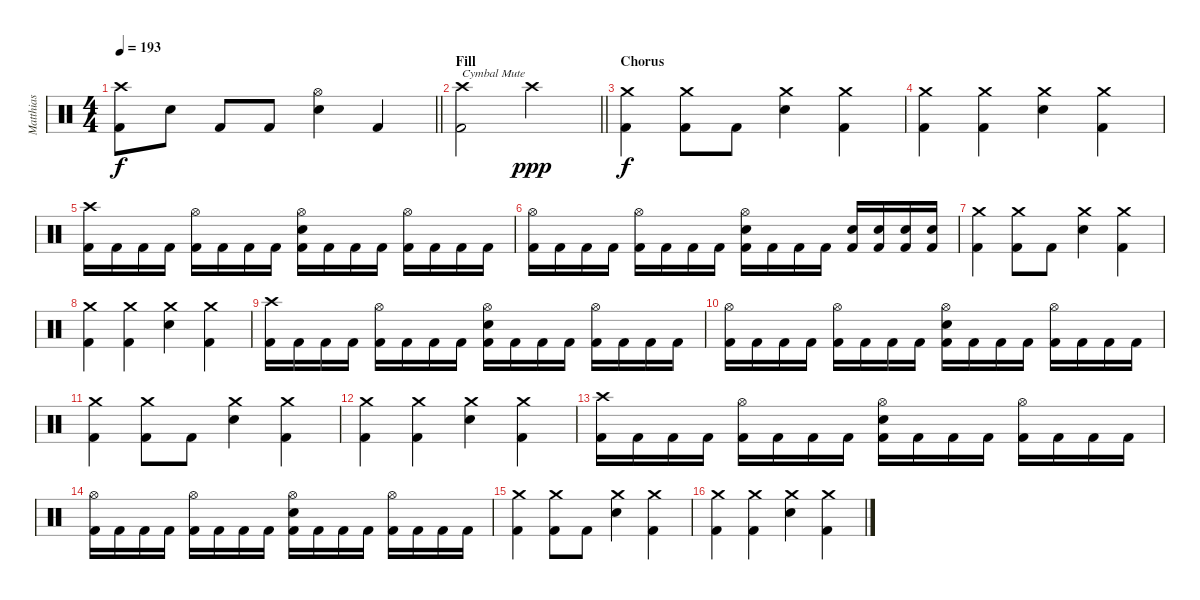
\track ("Matthias" "Matthias") {instrument percussion}
\staff {score}
\articulation defaults
\ts (4 4)
\tempo 193
\clef neutral
\barLineRight lightlight
\ks c
("Crash high (hit)" "Kick (hit) 2").8{dy f} "Electric Snare (hit)".8 "Kick (hit) 2".8 "Kick (hit) 2".8 ("Hi-Hat (open)" "Electric Snare (hit)").4 "Kick (hit) 2".4 |
\section ("" "Fill")
\barLineRight lightlight
("Crash high (hit)" "Kick (hit) 2").2{txt "Cymbal Mute"} "Crash high (hit)".2{dy ppp} |
\section ("" "Chorus")
("Crash medium (hit)" "Kick (hit) 2").4{dy f} ("Crash medium (hit)" "Kick (hit) 2").8 "Kick (hit) 2".8 ("Crash medium (hit)" "Electric Snare (hit)").4 ("Crash medium (hit)" "Kick (hit) 2").4 |
("Crash medium (hit)" "Kick (hit) 2").4 ("Crash medium (hit)" "Kick (hit) 2").4 ("Crash medium (hit)" "Electric Snare (hit)").4 ("Crash medium (hit)" "Kick (hit) 2").4 |
("Crash high (hit)" "Kick (hit) 2").16 "Kick (hit) 2".16 "Kick (hit) 2".16 "Kick (hit) 2".16 ("Hi-Hat (open)" "Kick (hit) 2").16 "Kick (hit) 2".16 "Kick (hit) 2".16 "Kick (hit) 2".16 ("Hi-Hat (open)" "Electric Snare (hit)" "Kick (hit) 2").16 "Kick (hit) 2".16 "Kick (hit) 2".16 "Kick (hit) 2".16 ("Hi-Hat (open)" "Kick (hit) 2").16 "Kick (hit) 2".16 "Kick (hit) 2".16 "Kick (hit) 2".16 |
("Hi-Hat (open)" "Kick (hit) 2").16 "Kick (hit) 2".16 "Kick (hit) 2".16 "Kick (hit) 2".16 ("Hi-Hat (open)" "Kick (hit) 2").16 "Kick (hit) 2".16 "Kick (hit) 2".16 "Kick (hit) 2".16 ("Hi-Hat (open)" "Electric Snare (hit)" "Kick (hit) 2").16 "Kick (hit) 2".16 "Kick (hit) 2".16 "Kick (hit) 2".16 ("Electric Snare (hit)" "Kick (hit) 2").16 ("Electric Snare (hit)" "Kick (hit) 2").16 ("Electric Snare (hit)" "Kick (hit) 2").16 ("Electric Snare (hit)" "Kick (hit) 2").16 |
("Crash medium (hit)" "Kick (hit) 2").4 ("Crash medium (hit)" "Kick (hit) 2").8 "Kick (hit) 2".8 ("Crash medium (hit)" "Electric Snare (hit)").4 ("Crash medium (hit)" "Kick (hit) 2").4 |
("Crash medium (hit)" "Kick (hit) 2").4 ("Crash medium (hit)" "Kick (hit) 2").4 ("Crash medium (hit)" "Electric Snare (hit)").4 ("Crash medium (hit)" "Kick (hit) 2").4 |
("Crash high (hit)" "Kick (hit) 2").16 "Kick (hit) 2".16 "Kick (hit) 2".16 "Kick (hit) 2".16 ("Hi-Hat (open)" "Kick (hit) 2").16 "Kick (hit) 2".16 "Kick (hit) 2".16 "Kick (hit) 2".16 ("Hi-Hat (open)" "Electric Snare (hit)" "Kick (hit) 2").16 "Kick (hit) 2".16 "Kick (hit) 2".16 "Kick (hit) 2".16 ("Hi-Hat (open)" "Kick (hit) 2").16 "Kick (hit) 2".16 "Kick (hit) 2".16 "Kick (hit) 2".16 |
("Hi-Hat (open)" "Kick (hit) 2").16 "Kick (hit) 2".16 "Kick (hit) 2".16 "Kick (hit) 2".16 ("Hi-Hat (open)" "Kick (hit) 2").16 "Kick (hit) 2".16 "Kick (hit) 2".16 "Kick (hit) 2".16 ("Hi-Hat (open)" "Electric Snare (hit)" "Kick (hit) 2").16 "Kick (hit) 2".16 "Kick (hit) 2".16 "Kick (hit) 2".16 ("Hi-Hat (open)" "Kick (hit) 2").16 "Kick (hit) 2".16 "Kick (hit) 2".16 "Kick (hit) 2".16 |
("Crash medium (hit)" "Kick (hit) 2").4 ("Crash medium (hit)" "Kick (hit) 2").8 "Kick (hit) 2".8 ("Crash medium (hit)" "Electric Snare (hit)").4 ("Crash medium (hit)" "Kick (hit) 2").4 |
("Crash medium (hit)" "Kick (hit) 2").4 ("Crash medium (hit)" "Kick (hit) 2").4 ("Crash medium (hit)" "Electric Snare (hit)").4 ("Crash medium (hit)" "Kick (hit) 2").4 |
("Crash high (hit)" "Kick (hit) 2").16 "Kick (hit) 2".16 "Kick (hit) 2".16 "Kick (hit) 2".16 ("Hi-Hat (open)" "Kick (hit) 2").16 "Kick (hit) 2".16 "Kick (hit) 2".16 "Kick (hit) 2".16 ("Hi-Hat (open)" "Electric Snare (hit)" "Kick (hit) 2").16 "Kick (hit) 2".16 "Kick (hit) 2".16 "Kick (hit) 2".16 ("Hi-Hat (open)" "Kick (hit) 2").16 "Kick (hit) 2".16 "Kick (hit) 2".16 "Kick (hit) 2".16 |
("Hi-Hat (open)" "Kick (hit) 2").16 "Kick (hit) 2".16 "Kick (hit) 2".16 "Kick (hit) 2".16 ("Hi-Hat (open)" "Kick (hit) 2").16 "Kick (hit) 2".16 "Kick (hit) 2".16 "Kick (hit) 2".16 ("Hi-Hat (open)" "Electric Snare (hit)" "Kick (hit) 2").16 "Kick (hit) 2".16 "Kick (hit) 2".16 "Kick (hit) 2".16 ("Hi-Hat (open)" "Kick (hit) 2").16 "Kick (hit) 2".16 "Kick (hit) 2".16 "Kick (hit) 2".16 |
("Crash medium (hit)" "Kick (hit) 2").4 ("Crash medium (hit)" "Kick (hit) 2").8 "Kick (hit) 2".8 ("Crash medium (hit)" "Electric Snare (hit)").4 ("Crash medium (hit)" "Kick (hit) 2").4 |
("Crash medium (hit)" "Kick (hit) 2").4 ("Crash medium (hit)" "Kick (hit) 2").4 ("Crash medium (hit)" "Electric Snare (hit)").4 ("Crash medium (hit)" "Kick (hit) 2").4
